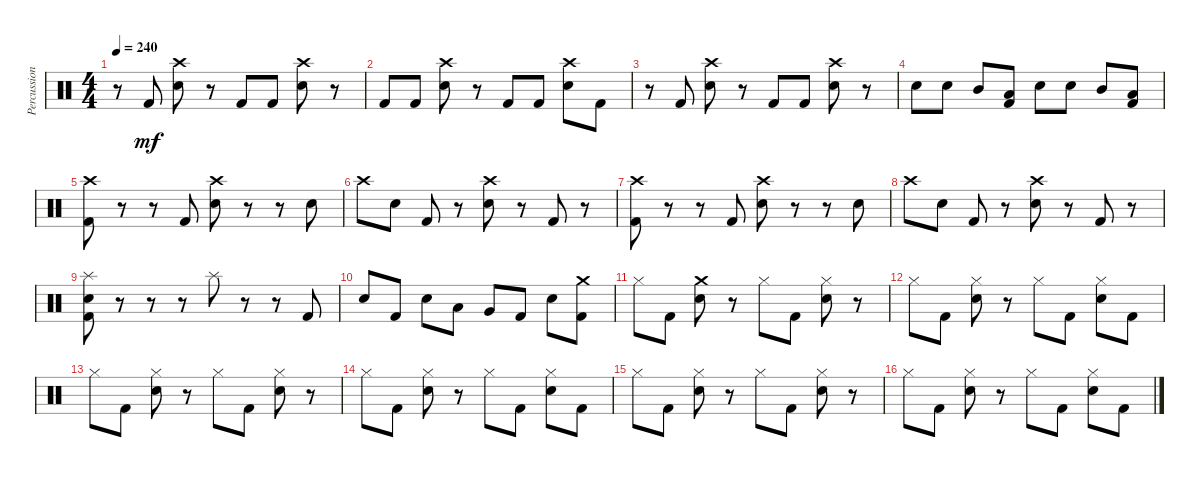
\track ("Percussion" "Percussion") {instrument percussion}
\staff {score}
\articulation defaults
\ts (4 4)
\tempo 240
\clef neutral
\ks c
r.8{dy mf} "Kick (hit) 2".8 ("Electric Snare (hit)" "Crash high (hit)").8 r.8 "Kick (hit) 2".8 "Kick (hit) 2".8 ("Electric Snare (hit)" "Crash high (hit)").8 r.8 |
"Kick (hit) 2".8 "Kick (hit) 2".8 ("Electric Snare (hit)" "Crash high (hit)").8 r.8 "Kick (hit) 2".8 "Kick (hit) 2".8 ("Electric Snare (hit)" "Crash high (hit)").8 "Kick (hit) 2".8 |
r.8 "Kick (hit) 2".8 ("Electric Snare (hit)" "Crash high (hit)").8 r.8 "Kick (hit) 2".8 "Kick (hit) 2".8 ("Electric Snare (hit)" "Crash high (hit)").8 r.8 |
"Electric Snare (hit)".8 "Electric Snare (hit)".8 "Mid Tom (hit)".8 ("Low Tom (hit)" "Kick (hit) 2").8 "Electric Snare (hit)".8 "Electric Snare (hit)".8 "Mid Tom (hit)".8 ("Low Tom (hit)" "Kick (hit) 2").8 |
("Kick (hit) 2" "Crash high (hit)").8 r.8 r.8 "Kick (hit) 2".8 ("Electric Snare (hit)" "Crash high (hit)").8 r.8 r.8 "Electric Snare (hit)".8 |
"Crash high (hit)".8 "Electric Snare (hit)".8 "Kick (hit) 2".8 r.8 ("Electric Snare (hit)" "Crash high (hit)").8 r.8 "Kick (hit) 2".8 r.8 |
("Kick (hit) 2" "Crash high (hit)").8 r.8 r.8 "Kick (hit) 2".8 ("Electric Snare (hit)" "Crash high (hit)").8 r.8 r.8 "Electric Snare (hit)".8 |
"Crash high (hit)".8 "Electric Snare (hit)".8 "Kick (hit) 2".8 r.8 ("Electric Snare (hit)" "Crash high (hit)").8 r.8 "Kick (hit) 2".8 r.8 |
("Kick (hit) 2" "Electric Snare (hit)" "Splash (hit)").8 r.8 r.8 r.8 "Splash (hit)".8 r.8 r.8 "Kick (hit) 2".8 |
"Electric Snare (hit)".8 "Kick (hit) 2".8 "Electric Snare (hit)".8 "Low Tom (hit)".8 "Very Low Tom (hit)".8 "Kick (hit) 2".8 "Electric Snare (hit)".8 ("Kick (hit) 2" "Crash medium (hit)").8 |
"Hi-Hat (closed)".8 "Kick (hit) 2".8 ("Crash medium (hit)" "Electric Snare (hit)").8 r.8 "Hi-Hat (closed)".8 "Kick (hit) 2".8 ("Electric Snare (hit)" "Hi-Hat (closed)").8 r.8 |
"Hi-Hat (closed)".8 "Kick (hit) 2".8 ("Electric Snare (hit)" "Hi-Hat (closed)").8 r.8 "Hi-Hat (closed)".8 "Kick (hit) 2".8 ("Electric Snare (hit)" "Hi-Hat (closed)").8 "Kick (hit) 2".8 |
"Hi-Hat (closed)".8 "Kick (hit) 2".8 ("Electric Snare (hit)" "Hi-Hat (closed)").8 r.8 "Hi-Hat (closed)".8 "Kick (hit) 2".8 ("Hi-Hat (closed)" "Electric Snare (hit)").8 r.8 |
"Hi-Hat (closed)".8 "Kick (hit) 2".8 ("Electric Snare (hit)" "Hi-Hat (closed)").8 r.8 "Hi-Hat (closed)".8 "Kick (hit) 2".8 ("Electric Snare (hit)" "Hi-Hat (closed)").8 "Kick (hit) 2".8 |
"Hi-Hat (closed)".8 "Kick (hit) 2".8 ("Electric Snare (hit)" "Hi-Hat (closed)").8 r.8 "Hi-Hat (closed)".8 "Kick (hit) 2".8 ("Hi-Hat (closed)" "Electric Snare (hit)").8 r.8 |
"Hi-Hat (closed)".8 "Kick (hit) 2".8 ("Electric Snare (hit)" "Hi-Hat (closed)").8 r.8 "Hi-Hat (closed)".8 "Kick (hit) 2".8 ("Electric Snare (hit)" "Hi-Hat (closed)").8 "Kick (hit) 2".8
